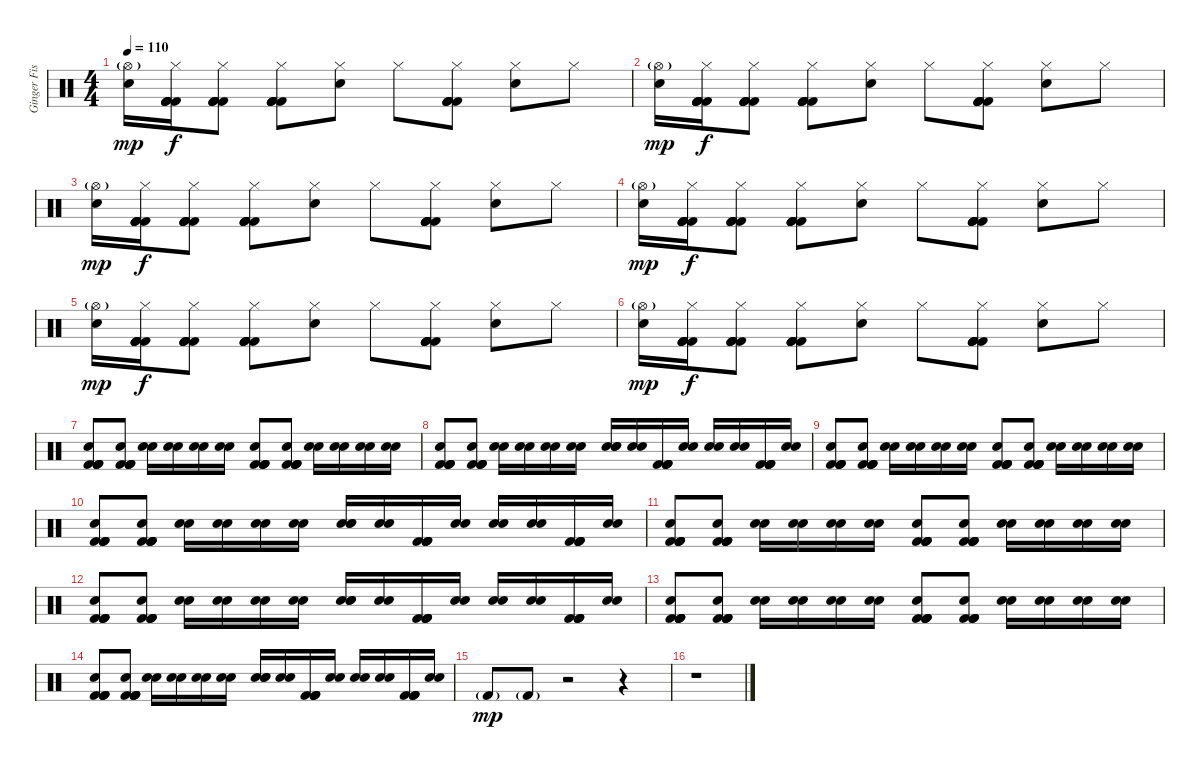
\track ("Ginger Fish" "Ginger Fis") {instrument percussion}
\staff {score}
\articulation defaults
\ts (4 4)
\tempo 110
\clef neutral
\ks c
("Hi-Hat (open)"{g} "Electric Snare (hit)").16{dy mp} ("Hi-Hat (closed)" "Kick (hit) 2" "Kick (hit) 2" "Kick (hit) 2" "Kick (hit) 2").16{dy f} ("Hi-Hat (closed)" "Kick (hit) 2" "Kick (hit) 2" "Kick (hit) 2" "Kick (hit) 2").8 ("Hi-Hat (closed)" "Kick (hit) 2" "Kick (hit) 2" "Kick (hit) 2" "Kick (hit) 2").8 ("Hi-Hat (closed)" "Electric Snare (hit)").8 "Hi-Hat (closed)".8 ("Hi-Hat (closed)" "Kick (hit) 2" "Kick (hit) 2" "Kick (hit) 2" "Kick (hit) 2").8 ("Hi-Hat (closed)" "Electric Snare (hit)").8 "Hi-Hat (closed)".8 |
("Hi-Hat (open)"{g} "Electric Snare (hit)").16{dy mp} ("Hi-Hat (closed)" "Kick (hit) 2" "Kick (hit) 2" "Kick (hit) 2" "Kick (hit) 2").16{dy f} ("Hi-Hat (closed)" "Kick (hit) 2" "Kick (hit) 2" "Kick (hit) 2" "Kick (hit) 2").8 ("Hi-Hat (closed)" "Kick (hit) 2" "Kick (hit) 2" "Kick (hit) 2" "Kick (hit) 2").8 ("Hi-Hat (closed)" "Electric Snare (hit)").8 "Hi-Hat (closed)".8 ("Hi-Hat (closed)" "Kick (hit) 2" "Kick (hit) 2" "Kick (hit) 2" "Kick (hit) 2").8 ("Hi-Hat (closed)" "Electric Snare (hit)").8 "Hi-Hat (closed)".8 |
("Hi-Hat (open)"{g} "Electric Snare (hit)").16{dy mp} ("Hi-Hat (closed)" "Kick (hit) 2" "Kick (hit) 2" "Kick (hit) 2" "Kick (hit) 2").16{dy f} ("Hi-Hat (closed)" "Kick (hit) 2" "Kick (hit) 2" "Kick (hit) 2" "Kick (hit) 2").8 ("Hi-Hat (closed)" "Kick (hit) 2" "Kick (hit) 2" "Kick (hit) 2" "Kick (hit) 2").8 ("Hi-Hat (closed)" "Electric Snare (hit)").8 "Hi-Hat (closed)".8 ("Hi-Hat (closed)" "Kick (hit) 2" "Kick (hit) 2" "Kick (hit) 2" "Kick (hit) 2").8 ("Hi-Hat (closed)" "Electric Snare (hit)").8 "Hi-Hat (closed)".8 |
("Hi-Hat (open)"{g} "Electric Snare (hit)").16{dy mp} ("Hi-Hat (closed)" "Kick (hit) 2" "Kick (hit) 2" "Kick (hit) 2" "Kick (hit) 2").16{dy f} ("Hi-Hat (closed)" "Kick (hit) 2" "Kick (hit) 2" "Kick (hit) 2" "Kick (hit) 2").8 ("Hi-Hat (closed)" "Kick (hit) 2" "Kick (hit) 2" "Kick (hit) 2" "Kick (hit) 2").8 ("Hi-Hat (closed)" "Electric Snare (hit)").8 "Hi-Hat (closed)".8 ("Hi-Hat (closed)" "Kick (hit) 2" "Kick (hit) 2" "Kick (hit) 2" "Kick (hit) 2").8 ("Hi-Hat (closed)" "Electric Snare (hit)").8 "Hi-Hat (closed)".8 |
("Hi-Hat (open)"{g} "Electric Snare (hit)").16{dy mp} ("Hi-Hat (closed)" "Kick (hit) 2" "Kick (hit) 2" "Kick (hit) 2" "Kick (hit) 2").16{dy f} ("Hi-Hat (closed)" "Kick (hit) 2" "Kick (hit) 2" "Kick (hit) 2" "Kick (hit) 2").8 ("Hi-Hat (closed)" "Kick (hit) 2" "Kick (hit) 2" "Kick (hit) 2" "Kick (hit) 2").8 ("Hi-Hat (closed)" "Electric Snare (hit)").8 "Hi-Hat (closed)".8 ("Hi-Hat (closed)" "Kick (hit) 2" "Kick (hit) 2" "Kick (hit) 2" "Kick (hit) 2").8 ("Hi-Hat (closed)" "Electric Snare (hit)").8 "Hi-Hat (closed)".8 |
("Hi-Hat (open)"{g} "Electric Snare (hit)").16{dy mp} ("Hi-Hat (closed)" "Kick (hit) 2" "Kick (hit) 2" "Kick (hit) 2" "Kick (hit) 2").16{dy f} ("Hi-Hat (closed)" "Kick (hit) 2" "Kick (hit) 2" "Kick (hit) 2" "Kick (hit) 2").8 ("Hi-Hat (closed)" "Kick (hit) 2" "Kick (hit) 2" "Kick (hit) 2" "Kick (hit) 2").8 ("Hi-Hat (closed)" "Electric Snare (hit)").8 "Hi-Hat (closed)".8 ("Hi-Hat (closed)" "Kick (hit) 2" "Kick (hit) 2" "Kick (hit) 2" "Kick (hit) 2").8 ("Hi-Hat (closed)" "Electric Snare (hit)").8 "Hi-Hat (closed)".8 |
("Hand Clap (hit)" "Kick (hit) 2" "Kick (hit) 2" "Kick (hit) 2" "Kick (hit) 2").8 ("Hand Clap (hit)" "Kick (hit) 2" "Kick (hit) 2" "Kick (hit) 2" "Kick (hit) 2").8 ("Electric Snare (hit)" "Electric Snare (hit)").16 ("Electric Snare (hit)" "Electric Snare (hit)").16 ("Electric Snare (hit)" "Electric Snare (hit)").16 ("Electric Snare (hit)" "Electric Snare (hit)").16 ("Hand Clap (hit)" "Kick (hit) 2" "Kick (hit) 2" "Kick (hit) 2" "Kick (hit) 2").8 ("Hand Clap (hit)" "Kick (hit) 2" "Kick (hit) 2" "Kick (hit) 2" "Kick (hit) 2").8 ("Electric Snare (hit)" "Electric Snare (hit)").16 ("Electric Snare (hit)" "Electric Snare (hit)").16 ("Electric Snare (hit)" "Electric Snare (hit)").16 ("Electric Snare (hit)" "Electric Snare (hit)").16 |
("Hand Clap (hit)" "Kick (hit) 2" "Kick (hit) 2" "Kick (hit) 2" "Kick (hit) 2").8 ("Hand Clap (hit)" "Kick (hit) 2" "Kick (hit) 2" "Kick (hit) 2" "Kick (hit) 2").8 ("Electric Snare (hit)" "Electric Snare (hit)").16 ("Electric Snare (hit)" "Electric Snare (hit)").16 ("Electric Snare (hit)" "Electric Snare (hit)").16 ("Electric Snare (hit)" "Electric Snare (hit)").16 ("Hand Clap (hit)" "Electric Snare (hit)" "Electric Snare (hit)").16 ("Electric Snare (hit)" "Electric Snare (hit)").16 ("Kick (hit) 2" "Kick (hit) 2" "Kick (hit) 2" "Kick (hit) 2").16 ("Electric Snare (hit)" "Electric Snare (hit)").16 ("Electric Snare (hit)" "Electric Snare (hit)").16 ("Electric Snare (hit)" "Electric Snare (hit)").16 ("Kick (hit) 2" "Kick (hit) 2" "Kick (hit) 2" "Kick (hit) 2").16 ("Electric Snare (hit)" "Electric Snare (hit)").16 |
("Hand Clap (hit)" "Kick (hit) 2" "Kick (hit) 2" "Kick (hit) 2" "Kick (hit) 2").8 ("Hand Clap (hit)" "Kick (hit) 2" "Kick (hit) 2" "Kick (hit) 2" "Kick (hit) 2").8 ("Electric Snare (hit)" "Electric Snare (hit)").16 ("Electric Snare (hit)" "Electric Snare (hit)").16 ("Electric Snare (hit)" "Electric Snare (hit)").16 ("Electric Snare (hit)" "Electric Snare (hit)").16 ("Hand Clap (hit)" "Kick (hit) 2" "Kick (hit) 2" "Kick (hit) 2" "Kick (hit) 2").8 ("Hand Clap (hit)" "Kick (hit) 2" "Kick (hit) 2" "Kick (hit) 2" "Kick (hit) 2").8 ("Electric Snare (hit)" "Electric Snare (hit)").16 ("Electric Snare (hit)" "Electric Snare (hit)").16 ("Electric Snare (hit)" "Electric Snare (hit)").16 ("Electric Snare (hit)" "Electric Snare (hit)").16 |
("Hand Clap (hit)" "Kick (hit) 2" "Kick (hit) 2" "Kick (hit) 2" "Kick (hit) 2").8 ("Hand Clap (hit)" "Kick (hit) 2" "Kick (hit) 2" "Kick (hit) 2" "Kick (hit) 2").8 ("Electric Snare (hit)" "Electric Snare (hit)").16 ("Electric Snare (hit)" "Electric Snare (hit)").16 ("Electric Snare (hit)" "Electric Snare (hit)").16 ("Electric Snare (hit)" "Electric Snare (hit)").16 ("Hand Clap (hit)" "Electric Snare (hit)" "Electric Snare (hit)").16 ("Electric Snare (hit)" "Electric Snare (hit)").16 ("Kick (hit) 2" "Kick (hit) 2" "Kick (hit) 2" "Kick (hit) 2").16 ("Electric Snare (hit)" "Electric Snare (hit)").16 ("Electric Snare (hit)" "Electric Snare (hit)").16 ("Electric Snare (hit)" "Electric Snare (hit)").16 ("Kick (hit) 2" "Kick (hit) 2" "Kick (hit) 2" "Kick (hit) 2").16 ("Electric Snare (hit)" "Electric Snare (hit)").16 |
("Hand Clap (hit)" "Kick (hit) 2" "Kick (hit) 2" "Kick (hit) 2" "Kick (hit) 2").8 ("Hand Clap (hit)" "Kick (hit) 2" "Kick (hit) 2" "Kick (hit) 2" "Kick (hit) 2").8 ("Electric Snare (hit)" "Electric Snare (hit)").16 ("Electric Snare (hit)" "Electric Snare (hit)").16 ("Electric Snare (hit)" "Electric Snare (hit)").16 ("Electric Snare (hit)" "Electric Snare (hit)").16 ("Hand Clap (hit)" "Kick (hit) 2" "Kick (hit) 2" "Kick (hit) 2" "Kick (hit) 2").8 ("Hand Clap (hit)" "Kick (hit) 2" "Kick (hit) 2" "Kick (hit) 2" "Kick (hit) 2").8 ("Electric Snare (hit)" "Electric Snare (hit)").16 ("Electric Snare (hit)" "Electric Snare (hit)").16 ("Electric Snare (hit)" "Electric Snare (hit)").16 ("Electric Snare (hit)" "Electric Snare (hit)").16 |
("Hand Clap (hit)" "Kick (hit) 2" "Kick (hit) 2" "Kick (hit) 2" "Kick (hit) 2").8 ("Hand Clap (hit)" "Kick (hit) 2" "Kick (hit) 2" "Kick (hit) 2" "Kick (hit) 2").8 ("Electric Snare (hit)" "Electric Snare (hit)").16 ("Electric Snare (hit)" "Electric Snare (hit)").16 ("Electric Snare (hit)" "Electric Snare (hit)").16 ("Electric Snare (hit)" "Electric Snare (hit)").16 ("Hand Clap (hit)" "Electric Snare (hit)" "Electric Snare (hit)").16 ("Electric Snare (hit)" "Electric Snare (hit)").16 ("Kick (hit) 2" "Kick (hit) 2" "Kick (hit) 2" "Kick (hit) 2").16 ("Electric Snare (hit)" "Electric Snare (hit)").16 ("Electric Snare (hit)" "Electric Snare (hit)").16 ("Electric Snare (hit)" "Electric Snare (hit)").16 ("Kick (hit) 2" "Kick (hit) 2" "Kick (hit) 2" "Kick (hit) 2").16 ("Electric Snare (hit)" "Electric Snare (hit)").16 |
("Hand Clap (hit)" "Kick (hit) 2" "Kick (hit) 2" "Kick (hit) 2" "Kick (hit) 2").8 ("Hand Clap (hit)" "Kick (hit) 2" "Kick (hit) 2" "Kick (hit) 2" "Kick (hit) 2").8 ("Electric Snare (hit)" "Electric Snare (hit)").16 ("Electric Snare (hit)" "Electric Snare (hit)").16 ("Electric Snare (hit)" "Electric Snare (hit)").16 ("Electric Snare (hit)" "Electric Snare (hit)").16 ("Hand Clap (hit)" "Kick (hit) 2" "Kick (hit) 2" "Kick (hit) 2" "Kick (hit) 2").8 ("Hand Clap (hit)" "Kick (hit) 2" "Kick (hit) 2" "Kick (hit) 2" "Kick (hit) 2").8 ("Electric Snare (hit)" "Electric Snare (hit)").16 ("Electric Snare (hit)" "Electric Snare (hit)").16 ("Electric Snare (hit)" "Electric Snare (hit)").16 ("Electric Snare (hit)" "Electric Snare (hit)").16 |
("Hand Clap (hit)" "Kick (hit) 2" "Kick (hit) 2" "Kick (hit) 2" "Kick (hit) 2").8 ("Hand Clap (hit)" "Kick (hit) 2" "Kick (hit) 2" "Kick (hit) 2" "Kick (hit) 2").8 ("Electric Snare (hit)" "Electric Snare (hit)").16 ("Electric Snare (hit)" "Electric Snare (hit)").16 ("Electric Snare (hit)" "Electric Snare (hit)").16 ("Electric Snare (hit)" "Electric Snare (hit)").16 ("Hand Clap (hit)" "Electric Snare (hit)" "Electric Snare (hit)").16 ("Electric Snare (hit)" "Electric Snare (hit)").16 ("Kick (hit) 2" "Kick (hit) 2" "Kick (hit) 2" "Kick (hit) 2").16 ("Electric Snare (hit)" "Electric Snare (hit)").16 ("Electric Snare (hit)" "Electric Snare (hit)").16 ("Electric Snare (hit)" "Electric Snare (hit)").16 ("Kick (hit) 2" "Kick (hit) 2" "Kick (hit) 2" "Kick (hit) 2").16 ("Electric Snare (hit)" "Electric Snare (hit)").16 |
"Kick (hit) 2"{g}.8{dy mp} "Kick (hit) 2"{g}.8 r.2 r.4 |
r.1
